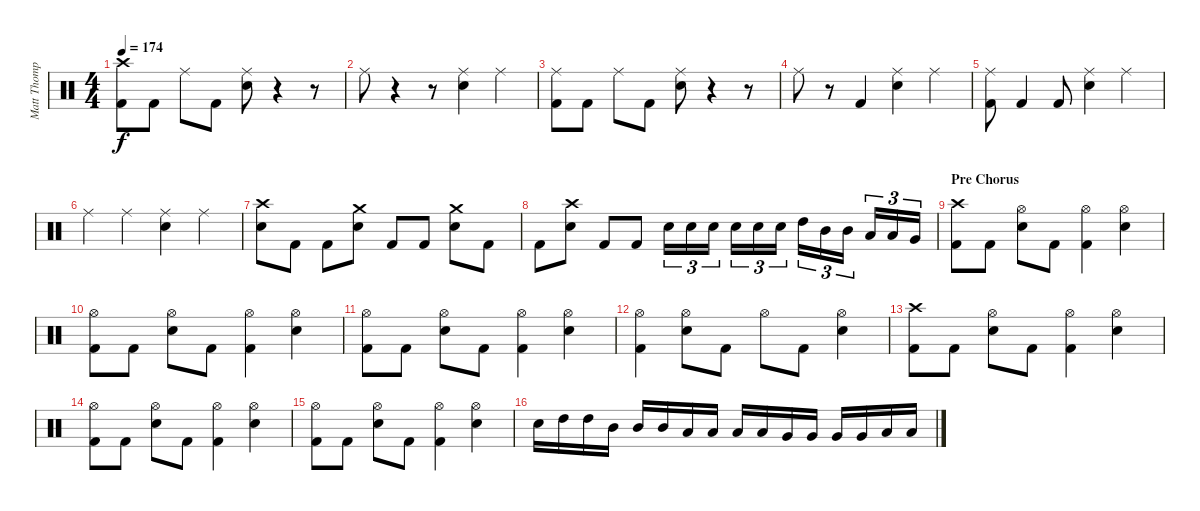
\track ("Matt Thompson" "Matt Thomp") {instrument percussion}
\staff {score}
\articulation defaults
\ts (4 4)
\tempo 174
\clef neutral
\ks c
("Crash high (hit)" "Kick (hit) 2").8{dy f} "Kick (hit) 2".8 "Ride (middle)".8 "Kick (hit) 2".8 ("Ride (middle)" "Snare (hit) 2").8 r.4 r.8 |
"Ride (middle)".8 r.4 r.8 ("Ride (middle)" "Snare (hit) 2").4 "Ride (middle)".4 |
("Ride (middle)" "Kick (hit) 2").8 "Kick (hit) 2".8 "Ride (middle)".8 "Kick (hit) 2".8 ("Ride (middle)" "Snare (hit) 2").8 r.4 r.8 |
"Ride (middle)".8 r.8 "Kick (hit) 2".4 ("Ride (middle)" "Snare (hit) 2").4 "Ride (middle)".4 |
("Ride (middle)" "Kick (hit) 2").8 "Kick (hit) 2".4 "Kick (hit) 2".8 ("Ride (middle)" "Snare (hit) 2").4 "Ride (middle)".4 |
"Ride (middle)".4 "Ride (middle)".4 ("Ride (middle)" "Snare (hit) 2").4 "Ride (middle)".4 |
("Crash high (hit)" "Snare (hit) 2").8 "Kick (hit) 2".8 "Kick (hit) 2".8 ("Crash medium (hit)" "Snare (hit) 2").8 "Kick (hit) 2".8 "Kick (hit) 2".8 ("Crash medium (hit)" "Snare (hit) 2").8 "Kick (hit) 2".8 |
"Kick (hit) 2".8 ("Crash high (hit)" "Snare (hit) 2").8 "Kick (hit) 2".8 "Kick (hit) 2".8 "Snare (hit) 2".16{tu (3 2)} "Snare (hit) 2".16{tu (3 2)} "Snare (hit) 2".16{tu (3 2)} "Snare (hit) 2".16{tu (3 2)} "Snare (hit) 2".16{tu (3 2)} "Snare (hit) 2".16{tu (3 2)} "High Tom (hit)".16{tu (3 2)} "Mid Tom (hit)".16{tu (3 2)} "Mid Tom (hit)".16{tu (3 2)} "Low Tom (hit)".16{tu (3 2)} "Low Tom (hit)".16{tu (3 2)} "Very Low Tom (hit)".16{tu (3 2)} |
\section ("" "Pre Chorus")
("Crash high (hit)" "Kick (hit) 2").8 "Kick (hit) 2".8 ("Hi-Hat (open)" "Snare (hit) 2").8 "Kick (hit) 2".8 ("Hi-Hat (open)" "Kick (hit) 2").4 ("Hi-Hat (open)" "Snare (hit) 2").4 |
("Hi-Hat (open)" "Kick (hit) 2").8 "Kick (hit) 2".8 ("Hi-Hat (open)" "Snare (hit) 2").8 "Kick (hit) 2".8 ("Hi-Hat (open)" "Kick (hit) 2").4 ("Hi-Hat (open)" "Snare (hit) 2").4 |
("Hi-Hat (open)" "Kick (hit) 2").8 "Kick (hit) 2".8 ("Hi-Hat (open)" "Snare (hit) 2").8 "Kick (hit) 2".8 ("Hi-Hat (open)" "Kick (hit) 2").4 ("Hi-Hat (open)" "Snare (hit) 2").4 |
("Hi-Hat (open)" "Kick (hit) 2").4 ("Hi-Hat (open)" "Snare (hit) 2").8 "Kick (hit) 2".8 "Hi-Hat (open)".8 "Kick (hit) 2".8 ("Hi-Hat (open)" "Snare (hit) 2").4 |
("Crash high (hit)" "Kick (hit) 2").8 "Kick (hit) 2".8 ("Hi-Hat (open)" "Snare (hit) 2").8 "Kick (hit) 2".8 ("Hi-Hat (open)" "Kick (hit) 2").4 ("Hi-Hat (open)" "Snare (hit) 2").4 |
("Hi-Hat (open)" "Kick (hit) 2").8 "Kick (hit) 2".8 ("Hi-Hat (open)" "Snare (hit) 2").8 "Kick (hit) 2".8 ("Hi-Hat (open)" "Kick (hit) 2").4 ("Hi-Hat (open)" "Snare (hit) 2").4 |
("Hi-Hat (open)" "Kick (hit) 2").8 "Kick (hit) 2".8 ("Hi-Hat (open)" "Snare (hit) 2").8 "Kick (hit) 2".8 ("Hi-Hat (open)" "Kick (hit) 2").4 ("Hi-Hat (open)" "Snare (hit) 2").4 |
"Snare (hit) 2".16 "High Tom (hit)".16 "High Tom (hit)".16 "Mid Tom (hit)".16 "Mid Tom (hit)".16 "Mid Tom (hit)".16 "Low Tom (hit)".16 "Low Tom (hit)".16 "Low Tom (hit)".16 "Low Tom (hit)".16 "Very Low Tom (hit)".16 "Very Low Tom (hit)".16 "Very Low Tom (hit)".16 "Very Low Tom (hit)".16 "Low Floor Tom (hit)".16 "Low Floor Tom (hit)".16
